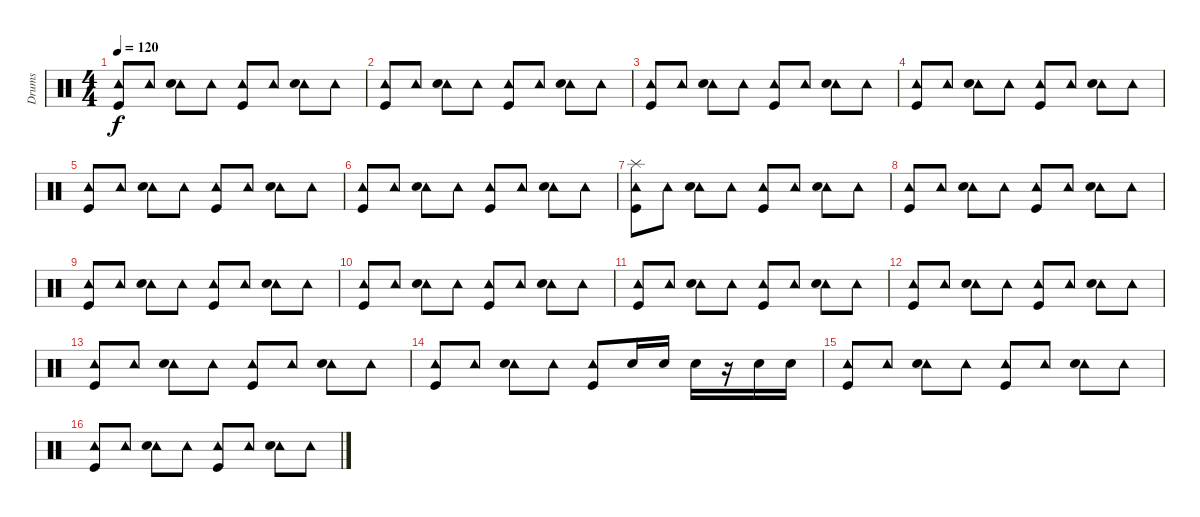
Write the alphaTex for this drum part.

\track ("Drums" "Drums") {instrument percussion}
\staff {score}
\articulation defaults
\ts (4 4)
\tempo 120
\clef neutral
\ks c
("Tambourine (hit)" "Kick (hit)").8{dy f} "Tambourine (hit)".8 ("Tambourine (hit)" "Snare (hit) 2").8 "Tambourine (hit)".8 ("Tambourine (hit)" "Kick (hit)").8 "Tambourine (hit)".8 ("Tambourine (hit)" "Snare (hit) 2").8 "Tambourine (hit)".8 |
("Tambourine (hit)" "Kick (hit)").8 "Tambourine (hit)".8 ("Tambourine (hit)" "Snare (hit) 2").8 "Tambourine (hit)".8 ("Tambourine (hit)" "Kick (hit)").8 "Tambourine (hit)".8 ("Tambourine (hit)" "Snare (hit) 2").8 "Tambourine (hit)".8 |
("Tambourine (hit)" "Kick (hit)").8 "Tambourine (hit)".8 ("Tambourine (hit)" "Snare (hit) 2").8 "Tambourine (hit)".8 ("Tambourine (hit)" "Kick (hit)").8 "Tambourine (hit)".8 ("Tambourine (hit)" "Snare (hit) 2").8 "Tambourine (hit)".8 |
("Tambourine (hit)" "Kick (hit)").8 "Tambourine (hit)".8 ("Tambourine (hit)" "Snare (hit) 2").8 "Tambourine (hit)".8 ("Tambourine (hit)" "Kick (hit)").8 "Tambourine (hit)".8 ("Tambourine (hit)" "Snare (hit) 2").8 "Tambourine (hit)".8 |
("Tambourine (hit)" "Kick (hit)").8 "Tambourine (hit)".8 ("Tambourine (hit)" "Snare (hit) 2").8 "Tambourine (hit)".8 ("Tambourine (hit)" "Kick (hit)").8 "Tambourine (hit)".8 ("Tambourine (hit)" "Snare (hit) 2").8 "Tambourine (hit)".8 |
("Tambourine (hit)" "Kick (hit)").8 "Tambourine (hit)".8 ("Tambourine (hit)" "Snare (hit) 2").8 "Tambourine (hit)".8 ("Tambourine (hit)" "Kick (hit)").8 "Tambourine (hit)".8 ("Tambourine (hit)" "Snare (hit) 2").8 "Tambourine (hit)".8 |
("Tambourine (hit)" "Kick (hit)" "Splash (hit)").8 "Tambourine (hit)".8 ("Tambourine (hit)" "Snare (hit) 2").8 "Tambourine (hit)".8 ("Tambourine (hit)" "Kick (hit)").8 "Tambourine (hit)".8 ("Tambourine (hit)" "Snare (hit) 2").8 "Tambourine (hit)".8 |
("Tambourine (hit)" "Kick (hit)").8 "Tambourine (hit)".8 ("Tambourine (hit)" "Snare (hit) 2").8 "Tambourine (hit)".8 ("Tambourine (hit)" "Kick (hit)").8 "Tambourine (hit)".8 ("Tambourine (hit)" "Snare (hit) 2").8 "Tambourine (hit)".8 |
("Tambourine (hit)" "Kick (hit)").8 "Tambourine (hit)".8 ("Tambourine (hit)" "Snare (hit) 2").8 "Tambourine (hit)".8 ("Tambourine (hit)" "Kick (hit)").8 "Tambourine (hit)".8 ("Tambourine (hit)" "Snare (hit) 2").8 "Tambourine (hit)".8 |
("Tambourine (hit)" "Kick (hit)").8 "Tambourine (hit)".8 ("Tambourine (hit)" "Snare (hit) 2").8 "Tambourine (hit)".8 ("Tambourine (hit)" "Kick (hit)").8 "Tambourine (hit)".8 ("Tambourine (hit)" "Snare (hit) 2").8 "Tambourine (hit)".8 |
("Tambourine (hit)" "Kick (hit)").8 "Tambourine (hit)".8 ("Tambourine (hit)" "Snare (hit) 2").8 "Tambourine (hit)".8 ("Tambourine (hit)" "Kick (hit)").8 "Tambourine (hit)".8 ("Tambourine (hit)" "Snare (hit) 2").8 "Tambourine (hit)".8 |
("Tambourine (hit)" "Kick (hit)").8 "Tambourine (hit)".8 ("Tambourine (hit)" "Snare (hit) 2").8 "Tambourine (hit)".8 ("Tambourine (hit)" "Kick (hit)").8 "Tambourine (hit)".8 ("Tambourine (hit)" "Snare (hit) 2").8 "Tambourine (hit)".8 |
("Tambourine (hit)" "Kick (hit)").8 "Tambourine (hit)".8 ("Tambourine (hit)" "Snare (hit) 2").8 "Tambourine (hit)".8 ("Tambourine (hit)" "Kick (hit)").8 "Tambourine (hit)".8 ("Tambourine (hit)" "Snare (hit) 2").8 "Tambourine (hit)".8 |
("Tambourine (hit)" "Kick (hit)").8 "Tambourine (hit)".8 ("Tambourine (hit)" "Snare (hit) 2").8 "Tambourine (hit)".8 ("Tambourine (hit)" "Kick (hit)").8 "Snare (hit) 2".16 "Snare (hit) 2".16 "Snare (hit) 2".16 r.16 "Snare (hit) 2".16 "Snare (hit) 2".16 |
("Tambourine (hit)" "Kick (hit)").8 "Tambourine (hit)".8 ("Tambourine (hit)" "Snare (hit) 2").8 "Tambourine (hit)".8 ("Tambourine (hit)" "Kick (hit)").8 "Tambourine (hit)".8 ("Tambourine (hit)" "Snare (hit) 2").8 "Tambourine (hit)".8 |
("Tambourine (hit)" "Kick (hit)").8 "Tambourine (hit)".8 ("Tambourine (hit)" "Snare (hit) 2").8 "Tambourine (hit)".8 ("Tambourine (hit)" "Kick (hit)").8 "Tambourine (hit)".8 ("Tambourine (hit)" "Snare (hit) 2").8 "Tambourine (hit)".8
